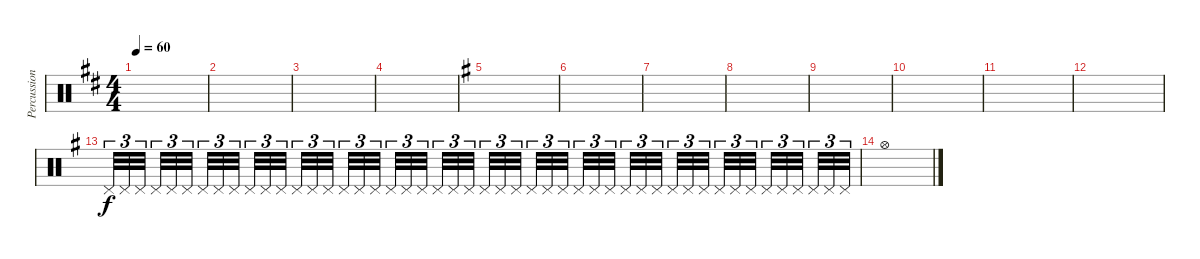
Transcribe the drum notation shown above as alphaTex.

\track ("Percussion" "Percussion") {instrument percussion}
\staff {score}
\articulation defaults
\ts (4 4)
\tempo 60
\clef neutral
\ks d
|
|
|
|
\ks g
|
|
|
|
|
|
|
|
"Pedal Hi-Hat (hit)".32{tu (3 2)} "Pedal Hi-Hat (hit)".32{tu (3 2)} "Pedal Hi-Hat (hit)".32{tu (3 2) beam splitsecondary} "Pedal Hi-Hat (hit)".32{tu (3 2)} "Pedal Hi-Hat (hit)".32{tu (3 2)} "Pedal Hi-Hat (hit)".32{tu (3 2) beam splitsecondary} "Pedal Hi-Hat (hit)".32{tu (3 2)} "Pedal Hi-Hat (hit)".32{tu (3 2)} "Pedal Hi-Hat (hit)".32{tu (3 2) beam splitsecondary} "Pedal Hi-Hat (hit)".32{tu (3 2)} "Pedal Hi-Hat (hit)".32{tu (3 2)} "Pedal Hi-Hat (hit)".32{tu (3 2)} "Pedal Hi-Hat (hit)".32{tu (3 2)} "Pedal Hi-Hat (hit)".32{tu (3 2)} "Pedal Hi-Hat (hit)".32{tu (3 2) beam splitsecondary} "Pedal Hi-Hat (hit)".32{tu (3 2)} "Pedal Hi-Hat (hit)".32{tu (3 2)} "Pedal Hi-Hat (hit)".32{tu (3 2) beam splitsecondary} "Pedal Hi-Hat (hit)".32{tu (3 2)} "Pedal Hi-Hat (hit)".32{tu (3 2)} "Pedal Hi-Hat (hit)".32{tu (3 2) beam splitsecondary} "Pedal Hi-Hat (hit)".32{tu (3 2)} "Pedal Hi-Hat (hit)".32{tu (3 2)} "Pedal Hi-Hat (hit)".32{tu (3 2)} "Pedal Hi-Hat (hit)".32{tu (3 2)} "Pedal Hi-Hat (hit)".32{tu (3 2)} "Pedal Hi-Hat (hit)".32{tu (3 2) beam splitsecondary} "Pedal Hi-Hat (hit)".32{tu (3 2)} "Pedal Hi-Hat (hit)".32{tu (3 2)} "Pedal Hi-Hat (hit)".32{tu (3 2) beam splitsecondary} "Pedal Hi-Hat (hit)".32{tu (3 2)} "Pedal Hi-Hat (hit)".32{tu (3 2)} "Pedal Hi-Hat (hit)".32{tu (3 2) beam splitsecondary} "Pedal Hi-Hat (hit)".32{tu (3 2)} "Pedal Hi-Hat (hit)".32{tu (3 2)} "Pedal Hi-Hat (hit)".32{tu (3 2)} "Pedal Hi-Hat (hit)".32{tu (3 2)} "Pedal Hi-Hat (hit)".32{tu (3 2)} "Pedal Hi-Hat (hit)".32{tu (3 2) beam splitsecondary} "Pedal Hi-Hat (hit)".32{tu (3 2)} "Pedal Hi-Hat (hit)".32{tu (3 2)} "Pedal Hi-Hat (hit)".32{tu (3 2) beam splitsecondary} "Pedal Hi-Hat (hit)".32{tu (3 2)} "Pedal Hi-Hat (hit)".32{tu (3 2)} "Pedal Hi-Hat (hit)".32{tu (3 2) beam splitsecondary} "Pedal Hi-Hat (hit)".32{tu (3 2)} "Pedal Hi-Hat (hit)".32{tu (3 2)} "Pedal Hi-Hat (hit)".32{tu (3 2)} |
"Hi-Hat (open)".1
